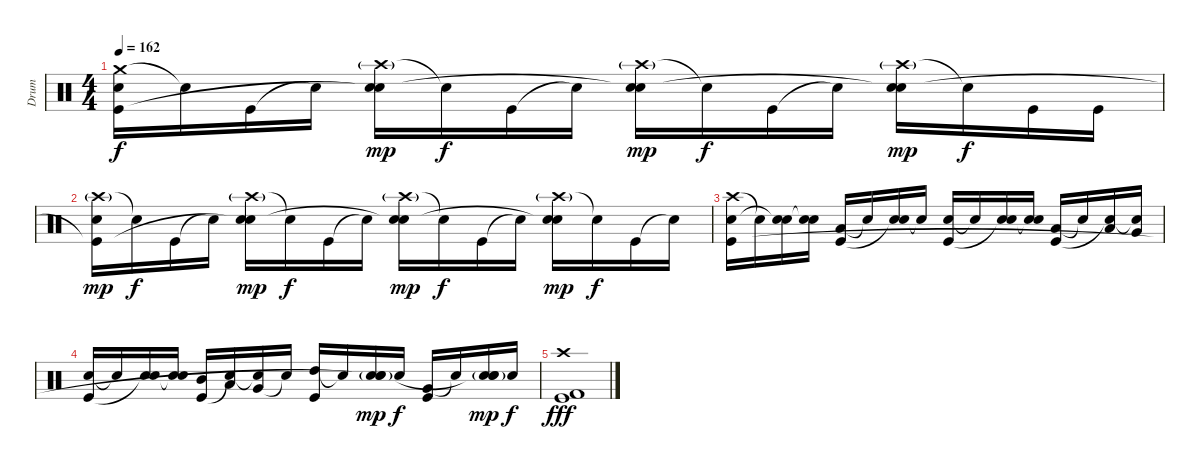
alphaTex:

\track ("Drum" "Drum") {instrument percussion}
\staff {score}
\articulation defaults
\ts (4 4)
\tempo 162
\clef neutral
\ks c
("Crash medium (hit)" "Electric Snare (hit)" "Kick (hit)"{t}).16{dy f} "Snare (hit)"{t}.16 "Kick (hit)".16 "Snare (hit)"{t}.16 ("Crash high (hit)"{g} "Electric Snare (hit)" "Snare (hit)"{t}).16{dy mp} "Snare (hit)"{t}.16{dy f} "Kick (hit)".16 "Snare (hit)"{t}.16 ("Crash high (hit)"{g} "Electric Snare (hit)" "Snare (hit)"{t}).16{dy mp} "Snare (hit)"{t}.16{dy f} "Kick (hit)".16 "Snare (hit)"{t}.16 ("Crash high (hit)"{g} "Electric Snare (hit)" "Snare (hit)"{t}).16{dy mp} "Snare (hit)"{t}.16{dy f} "Kick (hit)".16 "Kick (hit)".16 |
("Crash high (hit)"{g} "Electric Snare (hit)" "Kick (hit)"{t}).16{dy mp} "Snare (hit)"{t}.16{dy f} "Kick (hit)".16 "Snare (hit)"{t}.16 ("Crash high (hit)"{g} "Electric Snare (hit)" "Snare (hit)"{t}).16{dy mp} "Snare (hit)"{t}.16{dy f} "Kick (hit)".16 "Snare (hit)"{t}.16 ("Crash high (hit)"{g} "Electric Snare (hit)" "Snare (hit)"{t}).16{dy mp} "Snare (hit)"{t}.16{dy f} "Kick (hit)".16 "Snare (hit)"{t}.16 ("Crash high (hit)"{g} "Electric Snare (hit)" "Snare (hit)"{t}).16{dy mp} "Snare (hit)"{t}.16{dy f} "Kick (hit)".16 "Snare (hit)"{t}.16 |
("Crash high (hit)" "Electric Snare (hit)" "Kick (hit)").16 "Snare (hit)"{t}.16 ("Electric Snare (hit)" "Snare (hit)"{t}).16 ("Electric Snare (hit)" "Snare (hit)"{t}).16 ("Low Tom (hit)" "Kick (hit)").16 "Snare (hit)"{t}.16 ("Electric Snare (hit)" "Snare (hit)"{t}).16 "Snare (hit)"{t}.16 ("Electric Snare (hit)" "Kick (hit)").16 "Snare (hit)"{t}.16 ("Electric Snare (hit)" "Snare (hit)"{t}).16 ("Electric Snare (hit)" "Snare (hit)"{t}).16 ("Low Tom (hit)" "Kick (hit)").16 "Snare (hit)"{t}.16 ("Low Tom (hit)" "Snare (hit)"{t}).16 ("Very Low Tom (hit)" "Snare (hit)"{t}).16 |
("Electric Snare (hit)" "Kick (hit)").16 "Snare (hit)"{t}.16 ("Electric Snare (hit)" "Snare (hit)"{t}).16 ("Electric Snare (hit)" "Snare (hit)"{t}).16 ("Mid Tom (hit)" "Kick (hit)").16 ("Low Tom (hit)" "Snare (hit)"{t}).16 ("Very Low Tom (hit)" "Snare (hit)"{t}).16 "Snare (hit)"{t}.16 ("High Tom (hit)" "Kick (hit)").16 "Snare (hit)"{t}.16 ("Electric Snare (hit)"{g} "Electric Snare (hit)" "Snare (hit)"{t}).16{bd 480 dy mp} "Snare (hit)"{t}.16{dy f} ("Very Low Tom (hit)" "Kick (hit)").16 "Snare (hit)"{t}.16 ("Electric Snare (hit)"{g} "Electric Snare (hit)" "Snare (hit)"{t}).16{bd 480 dy mp} "Snare (hit)"{t}.16{dy f} |
("Crash high (hit)" "Kick (hit) 2" "Kick (hit)").1{dy fff}
